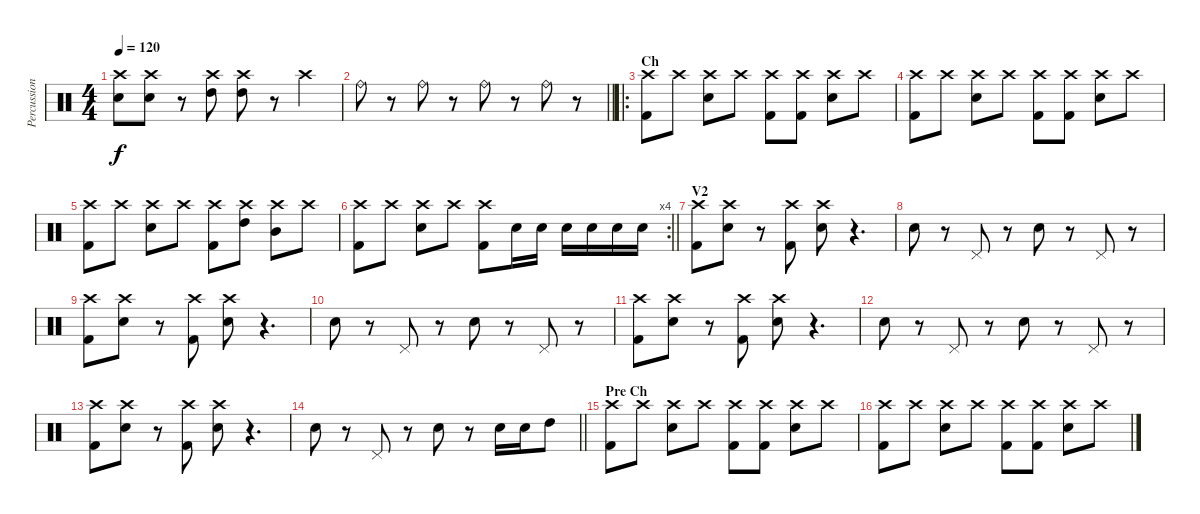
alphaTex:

\track ("Percussion" "Percussion") {instrument percussion}
\staff {score}
\articulation defaults
\ts (4 4)
\tempo 120
\clef neutral
\ks c
("Crash high (hit)" "Snare (hit) 2").8{dy f} ("Crash high (hit)" "Snare (hit) 2").8 r.8 ("Crash high (hit)" "High Tom (hit)").8 ("Crash high (hit)" "High Tom (hit)").8 r.8 "Crash high (hit)".4 |
\barLineRight lightlight "Ride (bell)".8
r.8 "Ride (bell)".8 r.8 "Ride (bell)".8 r.8 "Ride (bell)".8 r.8 |
\ro
\section ("" "Ch")
("Crash high (hit)" "Kick (hit) 2").8 "Crash high (hit)".8 ("Crash high (hit)" "Snare (hit) 2").8 "Crash high (hit)".8 ("Crash high (hit)" "Kick (hit) 2").8 ("Crash high (hit)" "Kick (hit) 2").8 ("Crash high (hit)" "Snare (hit) 2").8 "Crash high (hit)".8 |
("Crash high (hit)" "Kick (hit) 2").8 "Crash high (hit)".8 ("Crash high (hit)" "Snare (hit) 2").8 "Crash high (hit)".8 ("Crash high (hit)" "Kick (hit) 2").8 ("Crash high (hit)" "Kick (hit) 2").8 ("Crash high (hit)" "Snare (hit) 2").8 "Crash high (hit)".8 |
("Crash high (hit)" "Kick (hit) 2").8 "Crash high (hit)".8 ("Crash high (hit)" "Snare (hit) 2").8 "Crash high (hit)".8 ("Crash high (hit)" "Kick (hit) 2").8 ("Crash high (hit)" "High Tom (hit)").8 ("Crash high (hit)" "Mid Tom (hit)").8 "Crash high (hit)".8 |
\rc 4
\barLineRight lightlight
("Crash high (hit)" "Kick (hit) 2").8 "Crash high (hit)".8 ("Crash high (hit)" "Snare (hit) 2").8 "Crash high (hit)".8 ("Crash high (hit)" "Kick (hit) 2").8 "Snare (hit) 2".16 "Snare (hit) 2".16 "Snare (hit) 2".16 "Snare (hit) 2".16 "Snare (hit) 2".16 "Snare (hit) 2".16 |
\section ("" "V2")
("Crash high (hit)" "Kick (hit) 2").8 ("Crash high (hit)" "Snare (hit) 2").8 r.8 ("Crash high (hit)" "Kick (hit) 2").8 ("Crash high (hit)" "Snare (hit) 2").8 r.4{d} |
"Snare (hit) 2".8 r.8 "Pedal Hi-Hat (hit)".8 r.8 "Snare (hit) 2".8 r.8 "Pedal Hi-Hat (hit)".8 r.8 |
("Crash high (hit)" "Kick (hit) 2").8 ("Crash high (hit)" "Snare (hit) 2").8 r.8 ("Crash high (hit)" "Kick (hit) 2").8 ("Crash high (hit)" "Snare (hit) 2").8 r.4{d} |
"Snare (hit) 2".8 r.8 "Pedal Hi-Hat (hit)".8 r.8 "Snare (hit) 2".8 r.8 "Pedal Hi-Hat (hit)".8 r.8 |
("Crash high (hit)" "Kick (hit) 2").8 ("Crash high (hit)" "Snare (hit) 2").8 r.8 ("Crash high (hit)" "Kick (hit) 2").8 ("Crash high (hit)" "Snare (hit) 2").8 r.4{d} |
"Snare (hit) 2".8 r.8 "Pedal Hi-Hat (hit)".8 r.8 "Snare (hit) 2".8 r.8 "Pedal Hi-Hat (hit)".8 r.8 |
("Crash high (hit)" "Kick (hit) 2").8 ("Crash high (hit)" "Snare (hit) 2").8 r.8 ("Crash high (hit)" "Kick (hit) 2").8 ("Crash high (hit)" "Snare (hit) 2").8 r.4{d} |
\barLineRight lightlight "Snare (hit) 2".8
r.8 "Pedal Hi-Hat (hit)".8 r.8 "Snare (hit) 2".8 r.8 "Snare (hit) 2".16 "Snare (hit) 2".16 "High Tom (hit)".8 |
\section ("" "Pre Ch")
("Crash high (hit)" "Kick (hit) 2").8 "Crash high (hit)".8 ("Crash high (hit)" "Snare (hit) 2").8 "Crash high (hit)".8 ("Crash high (hit)" "Kick (hit) 2").8 ("Crash high (hit)" "Kick (hit) 2").8 ("Crash high (hit)" "Snare (hit) 2").8 "Crash high (hit)".8 |
("Crash high (hit)" "Kick (hit) 2").8 "Crash high (hit)".8 ("Crash high (hit)" "Snare (hit) 2").8 "Crash high (hit)".8 ("Crash high (hit)" "Kick (hit) 2").8 ("Crash high (hit)" "Kick (hit) 2").8 ("Crash high (hit)" "Snare (hit) 2").8 "Crash high (hit)".8
